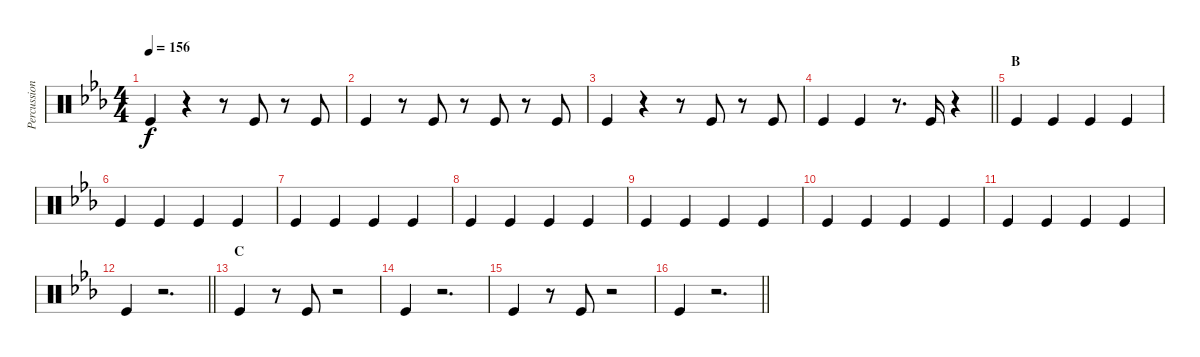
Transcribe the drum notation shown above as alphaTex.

\track ("Percussion foot" "Percussion") {instrument percussion}
\staff {score}
\articulation defaults
\ts (4 4)
\tempo 156
\clef neutral
\ks eb "Kick (hit)".4{dy f}
r.4 r.8 "Kick (hit)".8 r.8 "Kick (hit)".8 |
"Kick (hit)".4 r.8 "Kick (hit)".8 r.8 "Kick (hit)".8 r.8 "Kick (hit)".8 |
"Kick (hit)".4 r.4 r.8 "Kick (hit)".8 r.8 "Kick (hit)".8 |
\barLineRight lightlight "Kick (hit)".4 "Kick (hit)".4
r.8{d} "Kick (hit)".16 r.4 |
\section ("" "B")
"Kick (hit)".4 "Kick (hit)".4 "Kick (hit)".4 "Kick (hit)".4 |
"Kick (hit)".4 "Kick (hit)".4 "Kick (hit)".4 "Kick (hit)".4 |
"Kick (hit)".4 "Kick (hit)".4 "Kick (hit)".4 "Kick (hit)".4 |
"Kick (hit)".4 "Kick (hit)".4 "Kick (hit)".4 "Kick (hit)".4 |
"Kick (hit)".4 "Kick (hit)".4 "Kick (hit)".4 "Kick (hit)".4 |
"Kick (hit)".4 "Kick (hit)".4 "Kick (hit)".4 "Kick (hit)".4 |
"Kick (hit)".4 "Kick (hit)".4 "Kick (hit)".4 "Kick (hit)".4 |
\barLineRight lightlight "Kick (hit)".4
r.2{d} |
\section ("" "C")
"Kick (hit)".4 r.8 "Kick (hit)".8 r.2 |
"Kick (hit)".4 r.2{d} |
"Kick (hit)".4 r.8 "Kick (hit)".8 r.2 |
\barLineRight lightlight "Kick (hit)".4
r.2{d}
